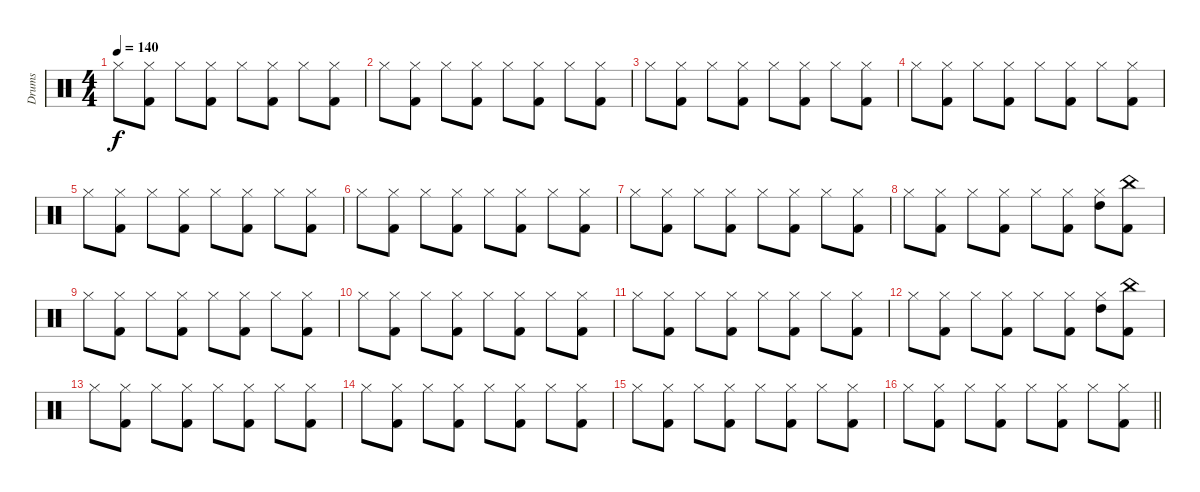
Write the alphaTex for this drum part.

\track ("Drums" "Drums") {instrument percussion}
\staff {score}
\articulation defaults
\ts (4 4)
\tempo 140
\clef neutral
\ks c "Hi-Hat (closed)".8{dy f}
("Hi-Hat (closed)" "Kick (hit) 2").8 "Hi-Hat (closed)".8 ("Hi-Hat (closed)" "Kick (hit) 2").8 "Hi-Hat (closed)".8 ("Hi-Hat (closed)" "Kick (hit) 2").8 "Hi-Hat (closed)".8 ("Hi-Hat (closed)" "Kick (hit) 2").8 |
"Hi-Hat (closed)".8 ("Hi-Hat (closed)" "Kick (hit) 2").8 "Hi-Hat (closed)".8 ("Hi-Hat (closed)" "Kick (hit) 2").8 "Hi-Hat (closed)".8 ("Hi-Hat (closed)" "Kick (hit) 2").8 "Hi-Hat (closed)".8 ("Hi-Hat (closed)" "Kick (hit) 2").8 |
"Hi-Hat (closed)".8 ("Hi-Hat (closed)" "Kick (hit) 2").8 "Hi-Hat (closed)".8 ("Hi-Hat (closed)" "Kick (hit) 2").8 "Hi-Hat (closed)".8 ("Hi-Hat (closed)" "Kick (hit) 2").8 "Hi-Hat (closed)".8 ("Hi-Hat (closed)" "Kick (hit) 2").8 |
"Hi-Hat (closed)".8 ("Hi-Hat (closed)" "Kick (hit) 2").8 "Hi-Hat (closed)".8 ("Hi-Hat (closed)" "Kick (hit) 2").8 "Hi-Hat (closed)".8 ("Hi-Hat (closed)" "Kick (hit) 2").8 "Hi-Hat (closed)".8 ("Hi-Hat (closed)" "Kick (hit) 2").8 |
"Hi-Hat (closed)".8 ("Hi-Hat (closed)" "Kick (hit) 2").8 "Hi-Hat (closed)".8 ("Hi-Hat (closed)" "Kick (hit) 2").8 "Hi-Hat (closed)".8 ("Hi-Hat (closed)" "Kick (hit) 2").8 "Hi-Hat (closed)".8 ("Hi-Hat (closed)" "Kick (hit) 2").8 |
"Hi-Hat (closed)".8 ("Hi-Hat (closed)" "Kick (hit) 2").8 "Hi-Hat (closed)".8 ("Hi-Hat (closed)" "Kick (hit) 2").8 "Hi-Hat (closed)".8 ("Hi-Hat (closed)" "Kick (hit) 2").8 "Hi-Hat (closed)".8 ("Hi-Hat (closed)" "Kick (hit) 2").8 |
"Hi-Hat (closed)".8 ("Hi-Hat (closed)" "Kick (hit) 2").8 "Hi-Hat (closed)".8 ("Hi-Hat (closed)" "Kick (hit) 2").8 "Hi-Hat (closed)".8 ("Hi-Hat (closed)" "Kick (hit) 2").8 "Hi-Hat (closed)".8 ("Hi-Hat (closed)" "Kick (hit) 2").8 |
"Hi-Hat (closed)".8 ("Hi-Hat (closed)" "Kick (hit) 2").8 "Hi-Hat (closed)".8 ("Hi-Hat (closed)" "Kick (hit) 2").8 "Hi-Hat (closed)".8 ("Hi-Hat (closed)" "Kick (hit) 2").8 ("Hi-Hat (closed)" "High Tom (hit)").8 ("China (hit)" "Kick (hit) 2").8 |
"Hi-Hat (closed)".8 ("Hi-Hat (closed)" "Kick (hit) 2").8 "Hi-Hat (closed)".8 ("Hi-Hat (closed)" "Kick (hit) 2").8 "Hi-Hat (closed)".8 ("Hi-Hat (closed)" "Kick (hit) 2").8 "Hi-Hat (closed)".8 ("Hi-Hat (closed)" "Kick (hit) 2").8 |
"Hi-Hat (closed)".8 ("Hi-Hat (closed)" "Kick (hit) 2").8 "Hi-Hat (closed)".8 ("Hi-Hat (closed)" "Kick (hit) 2").8 "Hi-Hat (closed)".8 ("Hi-Hat (closed)" "Kick (hit) 2").8 "Hi-Hat (closed)".8 ("Hi-Hat (closed)" "Kick (hit) 2").8 |
"Hi-Hat (closed)".8 ("Hi-Hat (closed)" "Kick (hit) 2").8 "Hi-Hat (closed)".8 ("Hi-Hat (closed)" "Kick (hit) 2").8 "Hi-Hat (closed)".8 ("Hi-Hat (closed)" "Kick (hit) 2").8 "Hi-Hat (closed)".8 ("Hi-Hat (closed)" "Kick (hit) 2").8 |
"Hi-Hat (closed)".8 ("Hi-Hat (closed)" "Kick (hit) 2").8 "Hi-Hat (closed)".8 ("Hi-Hat (closed)" "Kick (hit) 2").8 "Hi-Hat (closed)".8 ("Hi-Hat (closed)" "Kick (hit) 2").8 ("Hi-Hat (closed)" "High Tom (hit)").8 ("China (hit)" "Kick (hit) 2").8 |
"Hi-Hat (closed)".8 ("Hi-Hat (closed)" "Kick (hit) 2").8 "Hi-Hat (closed)".8 ("Hi-Hat (closed)" "Kick (hit) 2").8 "Hi-Hat (closed)".8 ("Hi-Hat (closed)" "Kick (hit) 2").8 "Hi-Hat (closed)".8 ("Hi-Hat (closed)" "Kick (hit) 2").8 |
"Hi-Hat (closed)".8 ("Hi-Hat (closed)" "Kick (hit) 2").8 "Hi-Hat (closed)".8 ("Hi-Hat (closed)" "Kick (hit) 2").8 "Hi-Hat (closed)".8 ("Hi-Hat (closed)" "Kick (hit) 2").8 "Hi-Hat (closed)".8 ("Hi-Hat (closed)" "Kick (hit) 2").8 |
"Hi-Hat (closed)".8 ("Hi-Hat (closed)" "Kick (hit) 2").8 "Hi-Hat (closed)".8 ("Hi-Hat (closed)" "Kick (hit) 2").8 "Hi-Hat (closed)".8 ("Hi-Hat (closed)" "Kick (hit) 2").8 "Hi-Hat (closed)".8 ("Hi-Hat (closed)" "Kick (hit) 2").8 |
\barLineRight lightlight "Hi-Hat (closed)".8
("Hi-Hat (closed)" "Kick (hit) 2").8 "Hi-Hat (closed)".8 ("Hi-Hat (closed)" "Kick (hit) 2").8 "Hi-Hat (closed)".8 ("Hi-Hat (closed)" "Kick (hit) 2").8 "Hi-Hat (closed)".8 ("Hi-Hat (closed)" "Kick (hit) 2").8
